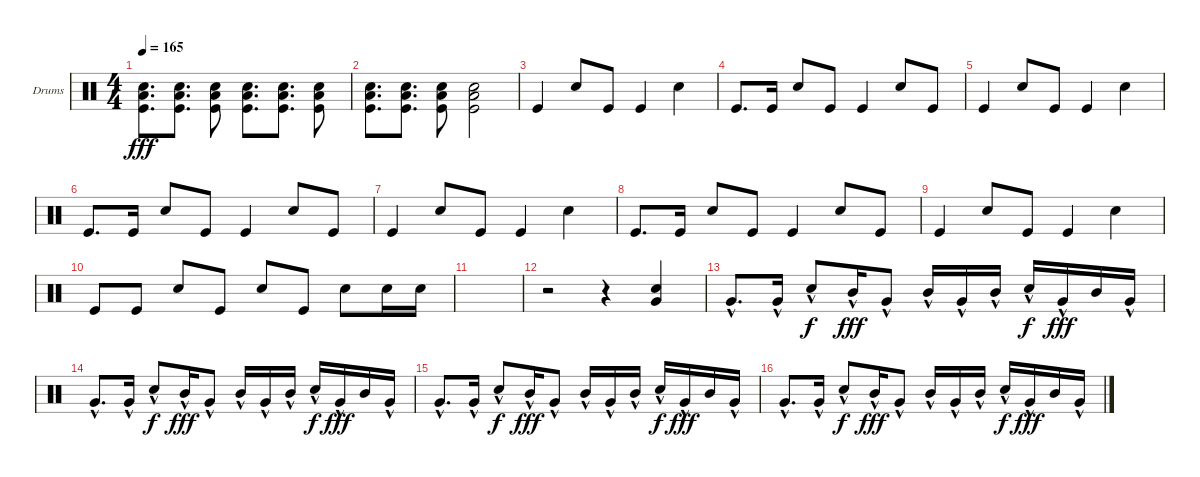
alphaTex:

\defaultSystemsLayout 4
\bracketExtendMode groupsimilarinstruments
\firstSystemTrackNameOrientation horizontal
\otherSystemsTrackNameOrientation horizontal
\track ("Helders" "Drums") {instrument percussion}
\staff {score}
\articulation defaults
\ts (4 4)
\tempo 165
\clef neutral
\ks c
("Snare (hit) 2" "Kick (hit)" "Low Tom (hit)").8{d dy fff} ("Snare (hit) 2" "Kick (hit)" "Low Tom (hit)").8{d} ("Snare (hit) 2" "Kick (hit)" "Low Tom (hit)").8 ("Snare (hit) 2" "Kick (hit)" "Low Tom (hit)").8{d} ("Snare (hit) 2" "Kick (hit)" "Low Tom (hit)").8{d} ("Snare (hit) 2" "Kick (hit)" "Low Tom (hit)").8 |
("Snare (hit) 2" "Kick (hit)" "Low Tom (hit)").8{d} ("Snare (hit) 2" "Kick (hit)" "Low Tom (hit)").8{d} ("Snare (hit) 2" "Kick (hit)" "Low Tom (hit)").8 ("Snare (hit) 2" "Kick (hit)" "Low Tom (hit)").2 |
"Kick (hit)".4 "Snare (hit) 2".8 "Kick (hit)".8 "Kick (hit)".4 "Snare (hit) 2".4 |
"Kick (hit)".8{d} "Kick (hit)".16 "Snare (hit) 2".8 "Kick (hit)".8 "Kick (hit)".4 "Snare (hit) 2".8 "Kick (hit)".8 |
"Kick (hit)".4 "Snare (hit) 2".8 "Kick (hit)".8 "Kick (hit)".4 "Snare (hit) 2".4 |
"Kick (hit)".8{d} "Kick (hit)".16 "Snare (hit) 2".8 "Kick (hit)".8 "Kick (hit)".4 "Snare (hit) 2".8 "Kick (hit)".8 |
"Kick (hit)".4 "Snare (hit) 2".8 "Kick (hit)".8 "Kick (hit)".4 "Snare (hit) 2".4 |
"Kick (hit)".8{d} "Kick (hit)".16 "Snare (hit) 2".8 "Kick (hit)".8 "Kick (hit)".4 "Snare (hit) 2".8 "Kick (hit)".8 |
"Kick (hit)".4 "Snare (hit) 2".8 "Kick (hit)".8 "Kick (hit)".4 "Snare (hit) 2".4 |
"Kick (hit)".8 "Kick (hit)".8 "Snare (hit) 2".8 "Kick (hit)".8 "Snare (hit) 2".8 "Kick (hit)".8 "Snare (hit) 2".8 "Snare (hit) 2".16 "Snare (hit) 2".16 |
|
r.2 r.4 ("Snare (hit) 2" "Very Low Tom (hit)").4 |
"Very Low Tom (hit)"{hac}.8{d} "Very Low Tom (hit)"{hac}.16 "Snare (hit) 2"{hac}.8{dy f} "Mid Tom (hit)"{hac}.16{dy fff} "Very Low Tom (hit)"{hac}.8 "Mid Tom (hit)"{hac}.16 "Very Low Tom (hit)"{hac}.16 "Mid Tom (hit)"{hac}.16 "Snare (hit) 2"{hac}.16{dy f} "Very Low Tom (hit)"{hac}.16{dy fff} "Mid Tom (hit)".16 "Very Low Tom (hit)"{hac}.16 |
"Very Low Tom (hit)"{hac}.8{d} "Very Low Tom (hit)"{hac}.16 "Snare (hit) 2"{hac}.8{dy f} "Mid Tom (hit)"{hac}.16{dy fff} "Very Low Tom (hit)"{hac}.8 "Mid Tom (hit)"{hac}.16 "Very Low Tom (hit)"{hac}.16 "Mid Tom (hit)"{hac}.16 "Snare (hit) 2"{hac}.16{dy f} "Very Low Tom (hit)"{hac}.16{dy fff} "Mid Tom (hit)".16 "Very Low Tom (hit)"{hac}.16 |
"Very Low Tom (hit)"{hac}.8{d} "Very Low Tom (hit)"{hac}.16 "Snare (hit) 2"{hac}.8{dy f} "Mid Tom (hit)"{hac}.16{dy fff} "Very Low Tom (hit)"{hac}.8 "Mid Tom (hit)"{hac}.16 "Very Low Tom (hit)"{hac}.16 "Mid Tom (hit)"{hac}.16 "Snare (hit) 2"{hac}.16{dy f} "Very Low Tom (hit)"{hac}.16{dy fff} "Mid Tom (hit)".16 "Very Low Tom (hit)"{hac}.16 |
"Very Low Tom (hit)"{hac}.8{d} "Very Low Tom (hit)"{hac}.16 "Snare (hit) 2"{hac}.8{dy f} "Mid Tom (hit)"{hac}.16{dy fff} "Very Low Tom (hit)"{hac}.8 "Mid Tom (hit)"{hac}.16 "Very Low Tom (hit)"{hac}.16 "Mid Tom (hit)"{hac}.16 "Snare (hit) 2"{hac}.16{dy f} "Very Low Tom (hit)"{hac}.16{dy fff} "Mid Tom (hit)".16 "Very Low Tom (hit)"{hac}.16
